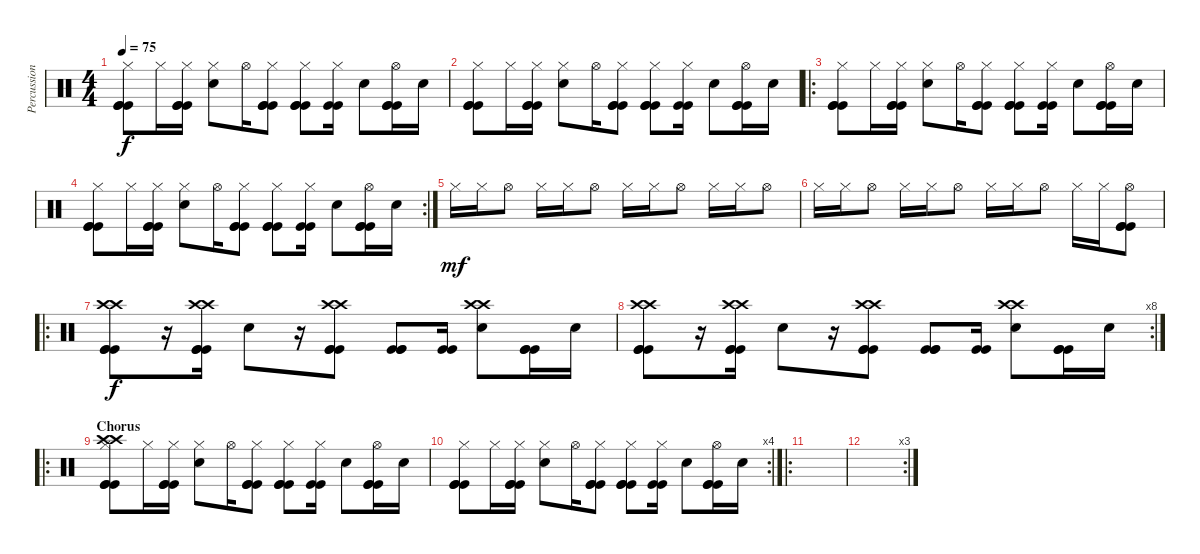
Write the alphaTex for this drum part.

\track ("Percussion" "Percussion") {instrument percussion}
\staff {score}
\articulation defaults
\ts (4 4)
\tempo 75
\clef neutral
\ks c
("Kick (hit)" "Kick (hit)" "Kick (hit)" "Hi-Hat (closed)").8{dy f} "Hi-Hat (closed)".16 ("Kick (hit)" "Kick (hit)" "Kick (hit)" "Hi-Hat (closed)").16 ("Electric Snare (hit)" "Hi-Hat (closed)").8 "Hi-Hat (open)".16 ("Kick (hit)" "Kick (hit)" "Kick (hit)" "Hi-Hat (closed)").8 ("Kick (hit)" "Kick (hit)" "Kick (hit)" "Hi-Hat (closed)").8 ("Kick (hit)" "Kick (hit)" "Hi-Hat (closed)").16 "Electric Snare (hit)".8 ("Kick (hit)" "Kick (hit)" "Kick (hit)" "Hi-Hat (open)").16 "Electric Snare (hit)".16 |
("Kick (hit)" "Kick (hit)" "Kick (hit)" "Hi-Hat (closed)").8 "Hi-Hat (closed)".16 ("Kick (hit)" "Kick (hit)" "Kick (hit)" "Hi-Hat (closed)").16 ("Electric Snare (hit)" "Hi-Hat (closed)").8 "Hi-Hat (open)".16 ("Kick (hit)" "Kick (hit)" "Kick (hit)" "Hi-Hat (closed)").8 ("Kick (hit)" "Kick (hit)" "Kick (hit)" "Hi-Hat (closed)").8 ("Kick (hit)" "Kick (hit)" "Hi-Hat (closed)").16 "Electric Snare (hit)".8 ("Kick (hit)" "Kick (hit)" "Kick (hit)" "Hi-Hat (open)").16 "Electric Snare (hit)".16 |
\ro
("Kick (hit)" "Kick (hit)" "Kick (hit)" "Hi-Hat (closed)").8 "Hi-Hat (closed)".16 ("Kick (hit)" "Kick (hit)" "Kick (hit)" "Hi-Hat (closed)").16 ("Electric Snare (hit)" "Hi-Hat (closed)").8 "Hi-Hat (open)".16 ("Kick (hit)" "Kick (hit)" "Kick (hit)" "Hi-Hat (closed)").8 ("Kick (hit)" "Kick (hit)" "Kick (hit)" "Hi-Hat (closed)").8 ("Kick (hit)" "Kick (hit)" "Hi-Hat (closed)").16 "Electric Snare (hit)".8 ("Kick (hit)" "Kick (hit)" "Kick (hit)" "Hi-Hat (open)").16 "Electric Snare (hit)".16 |
\rc 2
("Kick (hit)" "Kick (hit)" "Kick (hit)" "Hi-Hat (closed)").8 "Hi-Hat (closed)".16 ("Kick (hit)" "Kick (hit)" "Kick (hit)" "Hi-Hat (closed)").16 ("Electric Snare (hit)" "Hi-Hat (closed)").8 "Hi-Hat (open)".16 ("Kick (hit)" "Kick (hit)" "Kick (hit)" "Hi-Hat (closed)").8 ("Kick (hit)" "Kick (hit)" "Kick (hit)" "Hi-Hat (closed)").8 ("Kick (hit)" "Kick (hit)" "Hi-Hat (closed)").16 "Electric Snare (hit)".8 ("Kick (hit)" "Kick (hit)" "Kick (hit)" "Hi-Hat (open)").16 "Electric Snare (hit)".16 |
"Hi-Hat (closed)".16{dy mf} "Hi-Hat (closed)".16 "Hi-Hat (open)".8 "Hi-Hat (closed)".16 "Hi-Hat (closed)".16 "Hi-Hat (open)".8 "Hi-Hat (closed)".16 "Hi-Hat (closed)".16 "Hi-Hat (open)".8 "Hi-Hat (closed)".16 "Hi-Hat (closed)".16 "Hi-Hat (open)".8 |
"Hi-Hat (closed)".16 "Hi-Hat (closed)".16 "Hi-Hat (open)".8 "Hi-Hat (closed)".16 "Hi-Hat (closed)".16 "Hi-Hat (open)".8 "Hi-Hat (closed)".16 "Hi-Hat (closed)".16 "Hi-Hat (open)".8 "Hi-Hat (closed)".16 "Hi-Hat (closed)".16 ("Kick (hit)" "Kick (hit)" "Kick (hit)" "Hi-Hat (open)").8 |
\ro
("Kick (hit)" "Kick (hit)" "Kick (hit)" "Crash high (hit)" "Crash high (hit)").8{dy f} r.16 ("Kick (hit)" "Kick (hit)" "Kick (hit)" "Crash high (hit)" "Crash high (hit)").16 "Electric Snare (hit)".8 r.16 ("Kick (hit)" "Kick (hit)" "Kick (hit)" "Crash high (hit)" "Crash high (hit)").8 ("Kick (hit)" "Kick (hit)" "Kick (hit)").8 ("Kick (hit)" "Kick (hit)").16 ("Electric Snare (hit)" "Crash high (hit)" "Crash high (hit)").8 ("Kick (hit)" "Kick (hit)" "Kick (hit)").16 "Electric Snare (hit)".16 |
\rc 8
("Kick (hit)" "Kick (hit)" "Kick (hit)" "Crash high (hit)" "Crash high (hit)").8 r.16 ("Kick (hit)" "Kick (hit)" "Kick (hit)" "Crash high (hit)" "Crash high (hit)").16 "Electric Snare (hit)".8 r.16 ("Kick (hit)" "Kick (hit)" "Kick (hit)" "Crash high (hit)" "Crash high (hit)").8 ("Kick (hit)" "Kick (hit)" "Kick (hit)").8 ("Kick (hit)" "Kick (hit)").16 ("Electric Snare (hit)" "Crash high (hit)" "Crash high (hit)").8 ("Kick (hit)" "Kick (hit)" "Kick (hit)").16 "Electric Snare (hit)".16 |
\ro
\section ("" "Chorus")
("Kick (hit)" "Kick (hit)" "Kick (hit)" "Hi-Hat (closed)" "Crash high (hit)" "Crash high (hit)").8 "Hi-Hat (closed)".16 ("Kick (hit)" "Kick (hit)" "Kick (hit)" "Hi-Hat (closed)").16 ("Electric Snare (hit)" "Hi-Hat (closed)").8 "Hi-Hat (open)".16 ("Kick (hit)" "Kick (hit)" "Kick (hit)" "Hi-Hat (closed)").8 ("Kick (hit)" "Kick (hit)" "Kick (hit)" "Hi-Hat (closed)").8 ("Kick (hit)" "Kick (hit)" "Hi-Hat (closed)").16 "Electric Snare (hit)".8 ("Kick (hit)" "Kick (hit)" "Kick (hit)" "Hi-Hat (open)").16 "Electric Snare (hit)".16 |
\rc 4
("Kick (hit)" "Kick (hit)" "Kick (hit)" "Hi-Hat (closed)").8 "Hi-Hat (closed)".16 ("Kick (hit)" "Kick (hit)" "Kick (hit)" "Hi-Hat (closed)").16 ("Electric Snare (hit)" "Hi-Hat (closed)").8 "Hi-Hat (open)".16 ("Kick (hit)" "Kick (hit)" "Kick (hit)" "Hi-Hat (closed)").8 ("Kick (hit)" "Kick (hit)" "Kick (hit)" "Hi-Hat (closed)").8 ("Kick (hit)" "Kick (hit)" "Hi-Hat (closed)").16 "Electric Snare (hit)".8 ("Kick (hit)" "Kick (hit)" "Kick (hit)" "Hi-Hat (open)").16 "Electric Snare (hit)".16 |
\ro
|
\rc 3
